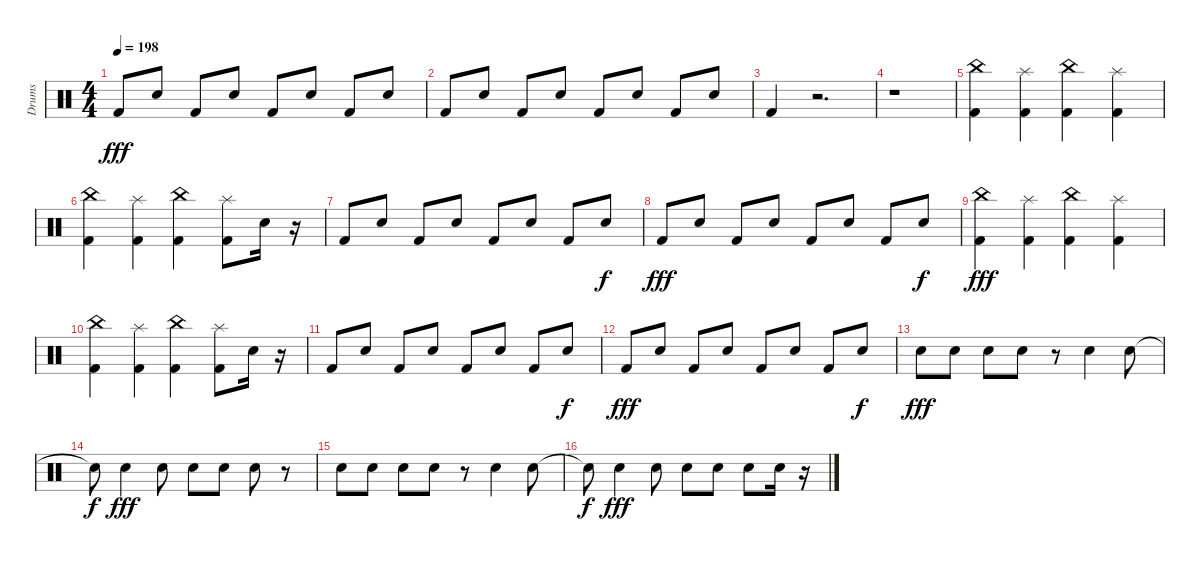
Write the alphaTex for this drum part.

\track ("Drums" "Drums") {instrument percussion}
\staff {score}
\articulation defaults
\ts (4 4)
\tempo 198
\clef neutral
\ks c "Kick (hit) 2".8{dy fff} "Snare (hit) 2".8 "Kick (hit) 2".8 "Snare (hit) 2".8 "Kick (hit) 2".8 "Snare (hit) 2".8 "Kick (hit) 2".8 "Snare (hit) 2".8
|
"Kick (hit) 2".8 "Snare (hit) 2".8 "Kick (hit) 2".8 "Snare (hit) 2".8 "Kick (hit) 2".8 "Snare (hit) 2".8 "Kick (hit) 2".8 "Snare (hit) 2".8 |
"Kick (hit) 2".4 r.2{d} |
r.1 |
("China (hit)" "Kick (hit) 2").4 ("Splash (hit)" "Kick (hit) 2").4 ("China (hit)" "Kick (hit) 2").4 ("Splash (hit)" "Kick (hit) 2").4 |
("China (hit)" "Kick (hit) 2").4 ("Splash (hit)" "Kick (hit) 2").4 ("China (hit)" "Kick (hit) 2").4 ("Splash (hit)" "Kick (hit) 2").8 "Snare (hit) 2".16 r.16 |
"Kick (hit) 2".8 "Snare (hit) 2".8 "Kick (hit) 2".8 "Snare (hit) 2".8 "Kick (hit) 2".8 "Snare (hit) 2".8 "Kick (hit) 2".8 "Snare (hit) 2".8{dy f} |
"Kick (hit) 2".8{dy fff} "Snare (hit) 2".8 "Kick (hit) 2".8 "Snare (hit) 2".8 "Kick (hit) 2".8 "Snare (hit) 2".8 "Kick (hit) 2".8 "Snare (hit) 2".8{dy f} |
("China (hit)" "Kick (hit) 2").4{dy fff} ("Splash (hit)" "Kick (hit) 2").4 ("China (hit)" "Kick (hit) 2").4 ("Splash (hit)" "Kick (hit) 2").4 |
("China (hit)" "Kick (hit) 2").4 ("Splash (hit)" "Kick (hit) 2").4 ("China (hit)" "Kick (hit) 2").4 ("Splash (hit)" "Kick (hit) 2").8 "Snare (hit) 2".16 r.16 |
"Kick (hit) 2".8 "Snare (hit) 2".8 "Kick (hit) 2".8 "Snare (hit) 2".8 "Kick (hit) 2".8 "Snare (hit) 2".8 "Kick (hit) 2".8 "Snare (hit) 2".8{dy f} |
"Kick (hit) 2".8{dy fff} "Snare (hit) 2".8 "Kick (hit) 2".8 "Snare (hit) 2".8 "Kick (hit) 2".8 "Snare (hit) 2".8 "Kick (hit) 2".8 "Snare (hit) 2".8{dy f} |
"Snare (hit) 2".8{dy fff} "Snare (hit) 2".8 "Snare (hit) 2".8 "Snare (hit) 2".8 r.8 "Snare (hit) 2".4 "Snare (hit) 2".8 |
"Snare (hit)"{t}.8{dy f} "Snare (hit) 2".4{dy fff} "Snare (hit) 2".8 "Snare (hit) 2".8 "Snare (hit) 2".8 "Snare (hit) 2".8 r.8 |
"Snare (hit) 2".8 "Snare (hit) 2".8 "Snare (hit) 2".8 "Snare (hit) 2".8 r.8 "Snare (hit) 2".4 "Snare (hit) 2".8 |
"Snare (hit)"{t}.8{dy f} "Snare (hit) 2".4{dy fff} "Snare (hit) 2".8 "Snare (hit) 2".8 "Snare (hit) 2".8 "Snare (hit) 2".8 "Snare (hit) 2".16 r.16
